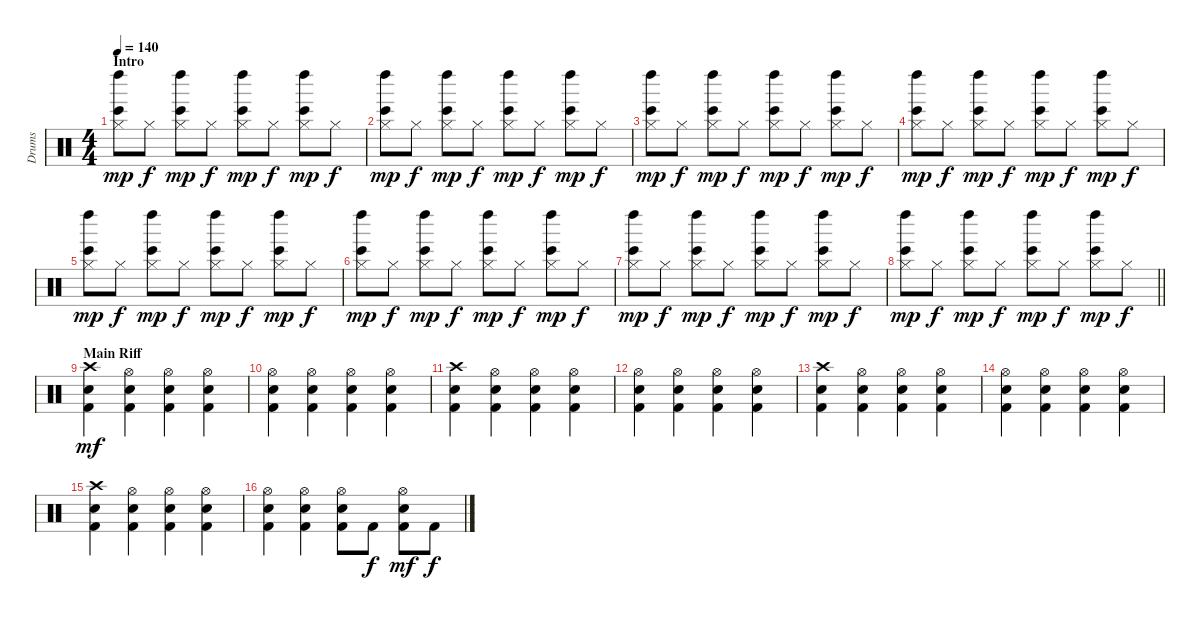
\track ("Drums" "Drums") {instrument percussion}
\staff {score}
\articulation defaults
\ts (4 4)
\section ("" "Intro")
\tempo 140
\clef neutral
\ks c
("Hi-Hat (closed)" "Left Maraca (hit)" "Bongo High (hit)").8{dy mp} "Hi-Hat (closed)".8{dy f} ("Hi-Hat (closed)" "Left Maraca (hit)" "Bongo High (hit)").8{dy mp} "Hi-Hat (closed)".8{dy f} ("Hi-Hat (closed)" "Left Maraca (hit)" "Bongo High (hit)").8{dy mp} "Hi-Hat (closed)".8{dy f} ("Hi-Hat (closed)" "Left Maraca (hit)" "Bongo High (hit)").8{dy mp} "Hi-Hat (closed)".8{dy f} |
("Hi-Hat (closed)" "Left Maraca (hit)" "Bongo High (hit)").8{dy mp} "Hi-Hat (closed)".8{dy f} ("Hi-Hat (closed)" "Left Maraca (hit)" "Bongo High (hit)").8{dy mp} "Hi-Hat (closed)".8{dy f} ("Hi-Hat (closed)" "Left Maraca (hit)" "Bongo High (hit)").8{dy mp} "Hi-Hat (closed)".8{dy f} ("Hi-Hat (closed)" "Left Maraca (hit)" "Bongo High (hit)").8{dy mp} "Hi-Hat (closed)".8{dy f} |
("Hi-Hat (closed)" "Left Maraca (hit)" "Bongo High (hit)").8{dy mp} "Hi-Hat (closed)".8{dy f} ("Hi-Hat (closed)" "Left Maraca (hit)" "Bongo High (hit)").8{dy mp} "Hi-Hat (closed)".8{dy f} ("Hi-Hat (closed)" "Left Maraca (hit)" "Bongo High (hit)").8{dy mp} "Hi-Hat (closed)".8{dy f} ("Hi-Hat (closed)" "Left Maraca (hit)" "Bongo High (hit)").8{dy mp} "Hi-Hat (closed)".8{dy f} |
("Hi-Hat (closed)" "Left Maraca (hit)" "Bongo High (hit)").8{dy mp} "Hi-Hat (closed)".8{dy f} ("Hi-Hat (closed)" "Left Maraca (hit)" "Bongo High (hit)").8{dy mp} "Hi-Hat (closed)".8{dy f} ("Hi-Hat (closed)" "Left Maraca (hit)" "Bongo High (hit)").8{dy mp} "Hi-Hat (closed)".8{dy f} ("Hi-Hat (closed)" "Left Maraca (hit)" "Bongo High (hit)").8{dy mp} "Hi-Hat (closed)".8{dy f} |
("Hi-Hat (closed)" "Left Maraca (hit)" "Bongo High (hit)").8{dy mp} "Hi-Hat (closed)".8{dy f} ("Hi-Hat (closed)" "Left Maraca (hit)" "Bongo High (hit)").8{dy mp} "Hi-Hat (closed)".8{dy f} ("Hi-Hat (closed)" "Left Maraca (hit)" "Bongo High (hit)").8{dy mp} "Hi-Hat (closed)".8{dy f} ("Hi-Hat (closed)" "Left Maraca (hit)" "Bongo High (hit)").8{dy mp} "Hi-Hat (closed)".8{dy f} |
("Hi-Hat (closed)" "Left Maraca (hit)" "Bongo High (hit)").8{dy mp} "Hi-Hat (closed)".8{dy f} ("Hi-Hat (closed)" "Left Maraca (hit)" "Bongo High (hit)").8{dy mp} "Hi-Hat (closed)".8{dy f} ("Hi-Hat (closed)" "Left Maraca (hit)" "Bongo High (hit)").8{dy mp} "Hi-Hat (closed)".8{dy f} ("Hi-Hat (closed)" "Left Maraca (hit)" "Bongo High (hit)").8{dy mp} "Hi-Hat (closed)".8{dy f} |
("Hi-Hat (closed)" "Left Maraca (hit)" "Bongo High (hit)").8{dy mp} "Hi-Hat (closed)".8{dy f} ("Hi-Hat (closed)" "Left Maraca (hit)" "Bongo High (hit)").8{dy mp} "Hi-Hat (closed)".8{dy f} ("Hi-Hat (closed)" "Left Maraca (hit)" "Bongo High (hit)").8{dy mp} "Hi-Hat (closed)".8{dy f} ("Hi-Hat (closed)" "Left Maraca (hit)" "Bongo High (hit)").8{dy mp} "Hi-Hat (closed)".8{dy f} |
\barLineRight lightlight
("Hi-Hat (closed)" "Left Maraca (hit)" "Bongo High (hit)").8{dy mp} "Hi-Hat (closed)".8{dy f} ("Hi-Hat (closed)" "Left Maraca (hit)" "Bongo High (hit)").8{dy mp} "Hi-Hat (closed)".8{dy f} ("Hi-Hat (closed)" "Left Maraca (hit)" "Bongo High (hit)").8{dy mp} "Hi-Hat (closed)".8{dy f} ("Hi-Hat (closed)" "Left Maraca (hit)" "Bongo High (hit)").8{dy mp} "Hi-Hat (closed)".8{dy f} |
\section ("" "Main Riff")
("Crash high (hit)" "Electric Snare (hit)" "Kick (hit) 2").4{dy mf} ("Hi-Hat (open)" "Electric Snare (hit)" "Kick (hit) 2").4 ("Hi-Hat (open)" "Electric Snare (hit)" "Kick (hit) 2").4 ("Hi-Hat (open)" "Electric Snare (hit)" "Kick (hit) 2").4 |
("Hi-Hat (open)" "Electric Snare (hit)" "Kick (hit) 2").4 ("Hi-Hat (open)" "Electric Snare (hit)" "Kick (hit) 2").4 ("Hi-Hat (open)" "Electric Snare (hit)" "Kick (hit) 2").4 ("Hi-Hat (open)" "Electric Snare (hit)" "Kick (hit) 2").4 |
("Crash high (hit)" "Electric Snare (hit)" "Kick (hit) 2").4 ("Hi-Hat (open)" "Electric Snare (hit)" "Kick (hit) 2").4 ("Hi-Hat (open)" "Electric Snare (hit)" "Kick (hit) 2").4 ("Hi-Hat (open)" "Electric Snare (hit)" "Kick (hit) 2").4 |
("Hi-Hat (open)" "Electric Snare (hit)" "Kick (hit) 2").4 ("Hi-Hat (open)" "Electric Snare (hit)" "Kick (hit) 2").4 ("Hi-Hat (open)" "Electric Snare (hit)" "Kick (hit) 2").4 ("Hi-Hat (open)" "Electric Snare (hit)" "Kick (hit) 2").4 |
("Crash high (hit)" "Electric Snare (hit)" "Kick (hit) 2").4 ("Hi-Hat (open)" "Electric Snare (hit)" "Kick (hit) 2").4 ("Hi-Hat (open)" "Electric Snare (hit)" "Kick (hit) 2").4 ("Hi-Hat (open)" "Electric Snare (hit)" "Kick (hit) 2").4 |
("Hi-Hat (open)" "Electric Snare (hit)" "Kick (hit) 2").4 ("Hi-Hat (open)" "Electric Snare (hit)" "Kick (hit) 2").4 ("Hi-Hat (open)" "Electric Snare (hit)" "Kick (hit) 2").4 ("Hi-Hat (open)" "Electric Snare (hit)" "Kick (hit) 2").4 |
("Crash high (hit)" "Electric Snare (hit)" "Kick (hit) 2").4 ("Hi-Hat (open)" "Electric Snare (hit)" "Kick (hit) 2").4 ("Hi-Hat (open)" "Electric Snare (hit)" "Kick (hit) 2").4 ("Hi-Hat (open)" "Electric Snare (hit)" "Kick (hit) 2").4 |
("Hi-Hat (open)" "Electric Snare (hit)" "Kick (hit) 2").4 ("Hi-Hat (open)" "Electric Snare (hit)" "Kick (hit) 2").4 ("Hi-Hat (open)" "Electric Snare (hit)" "Kick (hit) 2").8 "Kick (hit) 2".8{dy f} ("Hi-Hat (open)" "Electric Snare (hit)" "Kick (hit) 2").8{dy mf} "Kick (hit) 2".8{dy f}
